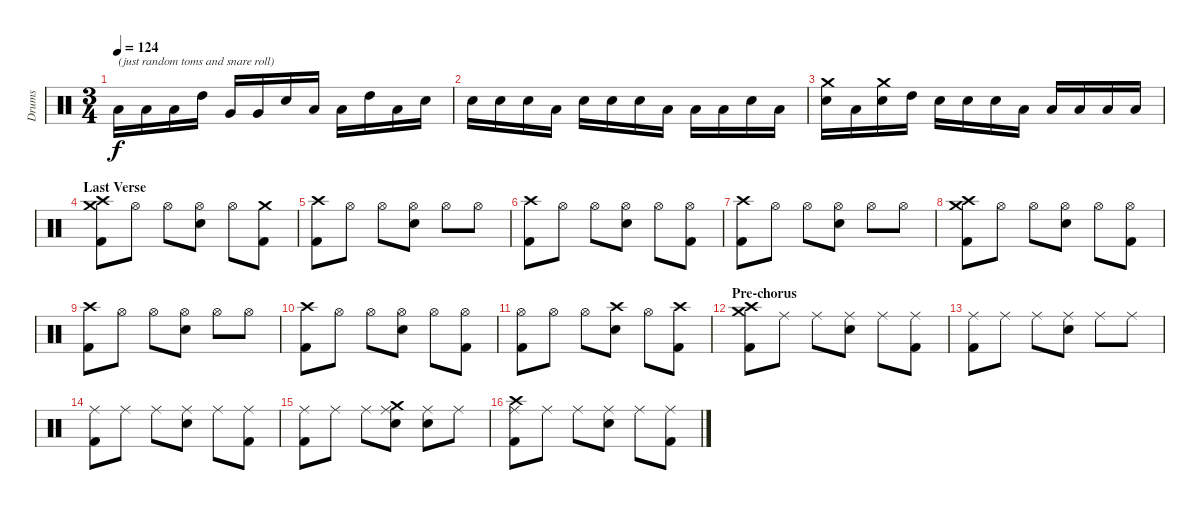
\track ("Drums" "Drums") {instrument percussion}
\staff {score}
\articulation defaults
\ts (3 4)
\tempo 124
\clef neutral
\ks c "Low Tom (hit)".16{txt "(just random toms and snare roll)" dy f} "Low Tom (hit)".16 "Low Tom (hit)".16 "High Tom (hit)".16 "Very Low Tom (hit)".16 "Very Low Tom (hit)".16 "Electric Snare (hit)".16 "Low Tom (hit)".16 "Low Floor Tom (hit)".16 "High Tom (hit)".16 "Low Tom (hit)".16 "Electric Snare (hit)".16
|
"Electric Snare (hit)".16 "Electric Snare (hit)".16 "Electric Snare (hit)".16 "Low Tom (hit)".16 "Electric Snare (hit)".16 "Electric Snare (hit)".16 "Electric Snare (hit)".16 "Low Tom (hit)".16 "Low Tom (hit)".16 "Low Floor Tom (hit)".16 "Electric Snare (hit)".16 "Low Floor Tom (hit)".16 |
("Crash medium (hit)" "Electric Snare (hit)").16 "Low Tom (hit)".16 ("Crash medium (hit)" "Electric Snare (hit)").16 "High Tom (hit)".16 "Electric Snare (hit)".16 "Electric Snare (hit)".16 "Electric Snare (hit)".16 "Low Tom (hit)".16 "Low Tom (hit)".16 "Low Tom (hit)".16 "Low Floor Tom (hit)".16 "Low Floor Tom (hit)".16 |
\section ("" "Last Verse")
("Crash medium (hit)" "Crash high (hit)" "Kick (hit) 2").8 "Hi-Hat (open)".8 "Hi-Hat (open)".8 ("Hi-Hat (open)" "Electric Snare (hit)").8 "Hi-Hat (open)".8 ("Crash medium (hit)" "Kick (hit) 2").8 |
("Crash high (hit)" "Kick (hit) 2").8 "Hi-Hat (open)".8 "Hi-Hat (open)".8 ("Hi-Hat (open)" "Electric Snare (hit)").8 "Hi-Hat (open)".8 "Hi-Hat (open)".8 |
("Crash high (hit)" "Kick (hit) 2").8 "Hi-Hat (open)".8 "Hi-Hat (open)".8 ("Hi-Hat (open)" "Electric Snare (hit)").8 "Hi-Hat (open)".8 ("Hi-Hat (open)" "Kick (hit) 2").8 |
("Crash high (hit)" "Kick (hit) 2").8 "Hi-Hat (open)".8 "Hi-Hat (open)".8 ("Hi-Hat (open)" "Electric Snare (hit)").8 "Hi-Hat (open)".8 "Hi-Hat (open)".8 |
("Crash medium (hit)" "Crash high (hit)" "Kick (hit) 2").8 "Hi-Hat (open)".8 "Hi-Hat (open)".8 ("Hi-Hat (open)" "Electric Snare (hit)").8 "Hi-Hat (open)".8 ("Hi-Hat (open)" "Kick (hit) 2").8 |
("Crash high (hit)" "Kick (hit) 2").8 "Hi-Hat (open)".8 "Hi-Hat (open)".8 ("Hi-Hat (open)" "Electric Snare (hit)").8 "Hi-Hat (open)".8 "Hi-Hat (open)".8 |
("Crash high (hit)" "Kick (hit) 2").8 "Hi-Hat (open)".8 "Hi-Hat (open)".8 ("Hi-Hat (open)" "Electric Snare (hit)").8 "Hi-Hat (open)".8 ("Hi-Hat (open)" "Kick (hit) 2").8 |
("Hi-Hat (open)" "Kick (hit) 2").8 "Hi-Hat (open)".8 "Hi-Hat (open)".8 ("Crash high (hit)" "Electric Snare (hit)").8 "Hi-Hat (open)".8 ("Crash high (hit)" "Kick (hit) 2").8 |
\section ("" "Pre-chorus")
("Crash medium (hit)" "Crash high (hit)" "Kick (hit) 2").8 "Ride (middle)".8 "Ride (middle)".8 ("Ride (middle)" "Electric Snare (hit)").8 "Ride (middle)".8 ("Ride (middle)" "Kick (hit) 2").8 |
("Ride (middle)" "Kick (hit) 2").8 "Ride (middle)".8 "Ride (middle)".8 ("Ride (middle)" "Electric Snare (hit)").8 "Ride (middle)".8 "Ride (middle)".8 |
("Ride (middle)" "Kick (hit) 2").8 "Ride (middle)".8 "Ride (middle)".8 ("Ride (middle)" "Electric Snare (hit)").8 "Ride (middle)".8 ("Ride (middle)" "Kick (hit) 2").8 |
("Ride (middle)" "Kick (hit) 2").8 "Ride (middle)".8 "Ride (middle)".8 ("Ride (middle)" "Crash medium (hit)" "Electric Snare (hit)").8 ("Ride (middle)" "Electric Snare (hit)").8 "Ride (middle)".8 |
("Ride (middle)" "Crash high (hit)" "Kick (hit) 2").8 "Ride (middle)".8 "Ride (middle)".8 ("Ride (middle)" "Electric Snare (hit)").8 "Ride (middle)".8 ("Ride (middle)" "Kick (hit) 2").8
